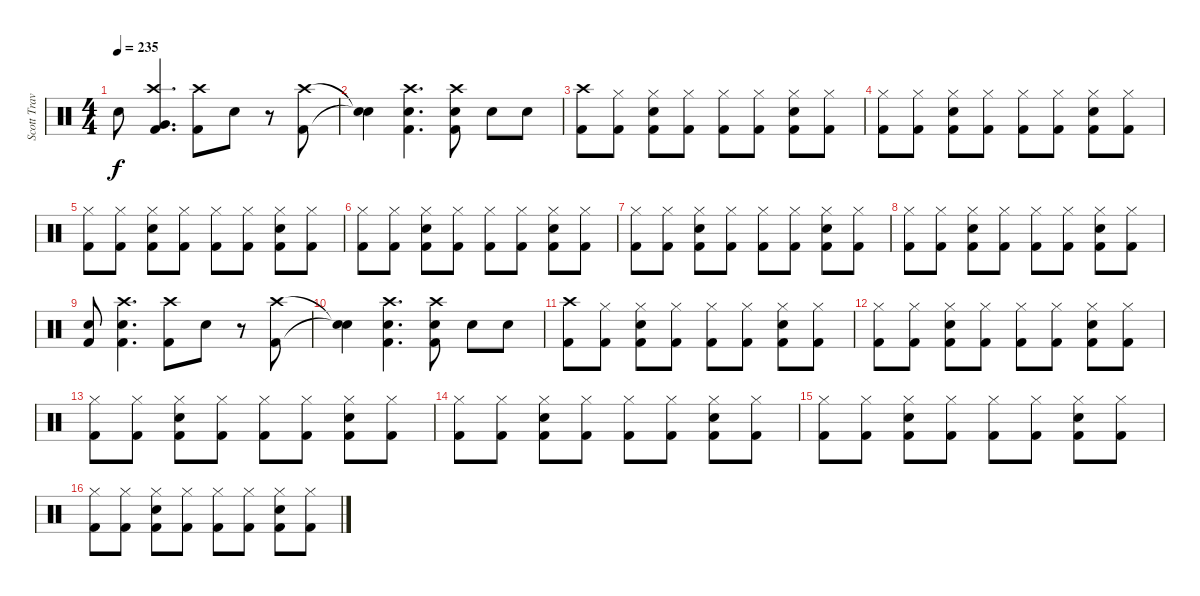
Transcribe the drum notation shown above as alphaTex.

\track ("Scott Travis" "Scott Trav") {instrument percussion}
\staff {score}
\articulation defaults
\ts (4 4)
\tempo 235
\clef neutral
\ks c "Snare (hit) 2".8{dy f}
("Kick (hit) 2" "Crash high (hit)" "Very Low Tom (hit)").4{d} ("Kick (hit) 2" "Crash high (hit)").8 "Snare (hit) 2".8 r.8 ("Kick (hit) 2" "Crash high (hit)").8 |
("Snare (hit)"{t} "Snare (hit)"{t}).4 ("Kick (hit) 2" "Crash high (hit)" "Snare (hit) 2").4{d} ("Kick (hit) 2" "Crash high (hit)" "Snare (hit) 2").8 "Snare (hit) 2".8 "Snare (hit) 2".8 |
("Kick (hit) 2" "Crash high (hit)").8 ("Kick (hit) 2" "Hi-Hat (closed)").8 ("Kick (hit) 2" "Snare (hit) 2" "Hi-Hat (closed)").8 ("Kick (hit) 2" "Hi-Hat (closed)").8 ("Kick (hit) 2" "Hi-Hat (closed)").8 ("Kick (hit) 2" "Hi-Hat (closed)").8 ("Kick (hit) 2" "Hi-Hat (closed)" "Snare (hit) 2").8 ("Kick (hit) 2" "Hi-Hat (closed)").8 |
("Kick (hit) 2" "Hi-Hat (closed)").8 ("Kick (hit) 2" "Hi-Hat (closed)").8 ("Kick (hit) 2" "Snare (hit) 2" "Hi-Hat (closed)").8 ("Kick (hit) 2" "Hi-Hat (closed)").8 ("Kick (hit) 2" "Hi-Hat (closed)").8 ("Kick (hit) 2" "Hi-Hat (closed)").8 ("Kick (hit) 2" "Hi-Hat (closed)" "Snare (hit) 2").8 ("Kick (hit) 2" "Hi-Hat (closed)").8 |
("Kick (hit) 2" "Hi-Hat (closed)").8 ("Kick (hit) 2" "Hi-Hat (closed)").8 ("Kick (hit) 2" "Snare (hit) 2" "Hi-Hat (closed)").8 ("Kick (hit) 2" "Hi-Hat (closed)").8 ("Kick (hit) 2" "Hi-Hat (closed)").8 ("Kick (hit) 2" "Hi-Hat (closed)").8 ("Kick (hit) 2" "Hi-Hat (closed)" "Snare (hit) 2").8 ("Kick (hit) 2" "Hi-Hat (closed)").8 |
("Kick (hit) 2" "Hi-Hat (closed)").8 ("Kick (hit) 2" "Hi-Hat (closed)").8 ("Kick (hit) 2" "Snare (hit) 2" "Hi-Hat (closed)").8 ("Kick (hit) 2" "Hi-Hat (closed)").8 ("Kick (hit) 2" "Hi-Hat (closed)").8 ("Kick (hit) 2" "Hi-Hat (closed)").8 ("Kick (hit) 2" "Hi-Hat (closed)" "Snare (hit) 2").8 ("Kick (hit) 2" "Hi-Hat (closed)").8 |
("Kick (hit) 2" "Hi-Hat (closed)").8 ("Kick (hit) 2" "Hi-Hat (closed)").8 ("Kick (hit) 2" "Snare (hit) 2" "Hi-Hat (closed)").8 ("Kick (hit) 2" "Hi-Hat (closed)").8 ("Kick (hit) 2" "Hi-Hat (closed)").8 ("Kick (hit) 2" "Hi-Hat (closed)").8 ("Kick (hit) 2" "Hi-Hat (closed)" "Snare (hit) 2").8 ("Kick (hit) 2" "Hi-Hat (closed)").8 |
("Kick (hit) 2" "Hi-Hat (closed)").8 ("Kick (hit) 2" "Hi-Hat (closed)").8 ("Kick (hit) 2" "Snare (hit) 2" "Hi-Hat (closed)").8 ("Kick (hit) 2" "Hi-Hat (closed)").8 ("Kick (hit) 2" "Hi-Hat (closed)").8 ("Kick (hit) 2" "Hi-Hat (closed)").8 ("Kick (hit) 2" "Hi-Hat (closed)" "Snare (hit) 2").8 ("Kick (hit) 2" "Hi-Hat (closed)").8 |
("Kick (hit) 2" "Snare (hit) 2").8 ("Kick (hit) 2" "Snare (hit) 2" "Crash high (hit)").4{d} ("Crash high (hit)" "Kick (hit) 2").8 "Snare (hit) 2".8 r.8 ("Kick (hit) 2" "Crash high (hit)").8 |
("Snare (hit)"{t} "Snare (hit)"{t}).4 ("Kick (hit) 2" "Crash high (hit)" "Snare (hit) 2").4{d} ("Kick (hit) 2" "Crash high (hit)" "Snare (hit) 2").8 "Snare (hit) 2".8 "Snare (hit) 2".8 |
("Kick (hit) 2" "Crash high (hit)").8 ("Kick (hit) 2" "Hi-Hat (closed)").8 ("Kick (hit) 2" "Snare (hit) 2" "Hi-Hat (closed)").8 ("Kick (hit) 2" "Hi-Hat (closed)").8 ("Kick (hit) 2" "Hi-Hat (closed)").8 ("Kick (hit) 2" "Hi-Hat (closed)").8 ("Kick (hit) 2" "Hi-Hat (closed)" "Snare (hit) 2").8 ("Kick (hit) 2" "Hi-Hat (closed)").8 |
("Kick (hit) 2" "Hi-Hat (closed)").8 ("Kick (hit) 2" "Hi-Hat (closed)").8 ("Kick (hit) 2" "Snare (hit) 2" "Hi-Hat (closed)").8 ("Kick (hit) 2" "Hi-Hat (closed)").8 ("Kick (hit) 2" "Hi-Hat (closed)").8 ("Kick (hit) 2" "Hi-Hat (closed)").8 ("Kick (hit) 2" "Hi-Hat (closed)" "Snare (hit) 2").8 ("Kick (hit) 2" "Hi-Hat (closed)").8 |
("Kick (hit) 2" "Hi-Hat (closed)").8 ("Kick (hit) 2" "Hi-Hat (closed)").8 ("Kick (hit) 2" "Snare (hit) 2" "Hi-Hat (closed)").8 ("Kick (hit) 2" "Hi-Hat (closed)").8 ("Kick (hit) 2" "Hi-Hat (closed)").8 ("Kick (hit) 2" "Hi-Hat (closed)").8 ("Kick (hit) 2" "Hi-Hat (closed)" "Snare (hit) 2").8 ("Kick (hit) 2" "Hi-Hat (closed)").8 |
("Kick (hit) 2" "Hi-Hat (closed)").8 ("Kick (hit) 2" "Hi-Hat (closed)").8 ("Kick (hit) 2" "Snare (hit) 2" "Hi-Hat (closed)").8 ("Kick (hit) 2" "Hi-Hat (closed)").8 ("Kick (hit) 2" "Hi-Hat (closed)").8 ("Kick (hit) 2" "Hi-Hat (closed)").8 ("Kick (hit) 2" "Hi-Hat (closed)" "Snare (hit) 2").8 ("Kick (hit) 2" "Hi-Hat (closed)").8 |
("Kick (hit) 2" "Hi-Hat (closed)").8 ("Kick (hit) 2" "Hi-Hat (closed)").8 ("Kick (hit) 2" "Snare (hit) 2" "Hi-Hat (closed)").8 ("Kick (hit) 2" "Hi-Hat (closed)").8 ("Kick (hit) 2" "Hi-Hat (closed)").8 ("Kick (hit) 2" "Hi-Hat (closed)").8 ("Kick (hit) 2" "Hi-Hat (closed)" "Snare (hit) 2").8 ("Kick (hit) 2" "Hi-Hat (closed)").8 |
("Kick (hit) 2" "Hi-Hat (closed)").8 ("Kick (hit) 2" "Hi-Hat (closed)").8 ("Kick (hit) 2" "Snare (hit) 2" "Hi-Hat (closed)").8 ("Kick (hit) 2" "Hi-Hat (closed)").8 ("Kick (hit) 2" "Hi-Hat (closed)").8 ("Kick (hit) 2" "Hi-Hat (closed)").8 ("Kick (hit) 2" "Hi-Hat (closed)" "Snare (hit) 2").8 ("Kick (hit) 2" "Hi-Hat (closed)").8
